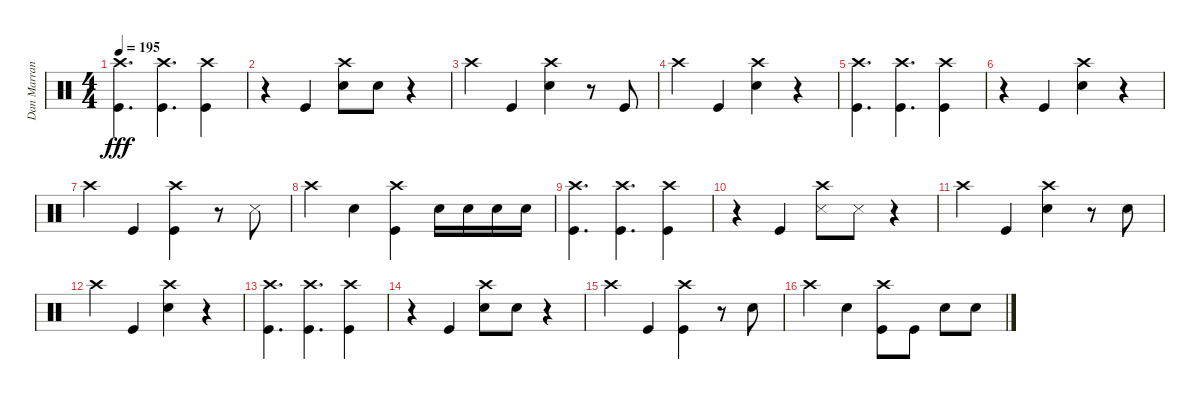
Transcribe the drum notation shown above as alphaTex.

\track ("Dan Marranca" "Dan Marran") {instrument percussion}
\staff {score}
\articulation defaults
\ts (4 4)
\tempo 195
\clef neutral
\ks c
("Crash high (hit)" "Kick (hit)").4{d dy fff} ("Crash high (hit)" "Kick (hit)").4{d} ("Crash high (hit)" "Kick (hit)").4 |
r.4 "Kick (hit)".4 ("Crash high (hit)" "Electric Snare (hit)").8 "Electric Snare (hit)".8 r.4 |
"Crash high (hit)".4 "Kick (hit)".4 ("Crash high (hit)" "Electric Snare (hit)").4 r.8 "Kick (hit)".8 |
"Crash high (hit)".4 "Kick (hit)".4 ("Crash high (hit)" "Electric Snare (hit)").4 r.4 |
("Crash high (hit)" "Kick (hit)").4{d} ("Crash high (hit)" "Kick (hit)").4{d} ("Crash high (hit)" "Kick (hit)").4 |
r.4 "Kick (hit)".4 ("Crash high (hit)" "Electric Snare (hit)").4 r.4 |
"Crash high (hit)".4 "Kick (hit)".4 ("Crash high (hit)" "Kick (hit)").4 r.8 "Snare (side stick) 3".8 |
"Crash high (hit)".4 "Electric Snare (hit)".4 ("Crash high (hit)" "Kick (hit)").4 "Electric Snare (hit)".16 "Electric Snare (hit)".16 "Electric Snare (hit)".16 "Electric Snare (hit)".16 |
("Crash high (hit)" "Kick (hit)").4{d} ("Crash high (hit)" "Kick (hit)").4{d} ("Crash high (hit)" "Kick (hit)").4 |
r.4 "Kick (hit)".4 ("Crash high (hit)" "Snare (side stick) 3").8 "Snare (side stick) 3".8 r.4 |
"Crash high (hit)".4 "Kick (hit)".4 ("Crash high (hit)" "Electric Snare (hit)").4 r.8 "Electric Snare (hit)".8 |
"Crash high (hit)".4 "Kick (hit)".4 ("Crash high (hit)" "Electric Snare (hit)").4 r.4 |
("Crash high (hit)" "Kick (hit)").4{d} ("Crash high (hit)" "Kick (hit)").4{d} ("Crash high (hit)" "Kick (hit)").4 |
r.4 "Kick (hit)".4 ("Crash high (hit)" "Electric Snare (hit)").8 "Electric Snare (hit)".8 r.4 |
"Crash high (hit)".4 "Kick (hit)".4 ("Crash high (hit)" "Kick (hit)").4 r.8 "Electric Snare (hit)".8 |
"Crash high (hit)".4 "Electric Snare (hit)".4 ("Crash high (hit)" "Kick (hit)").8 "Kick (hit)".8 "Electric Snare (hit)".8 "Electric Snare (hit)".8
